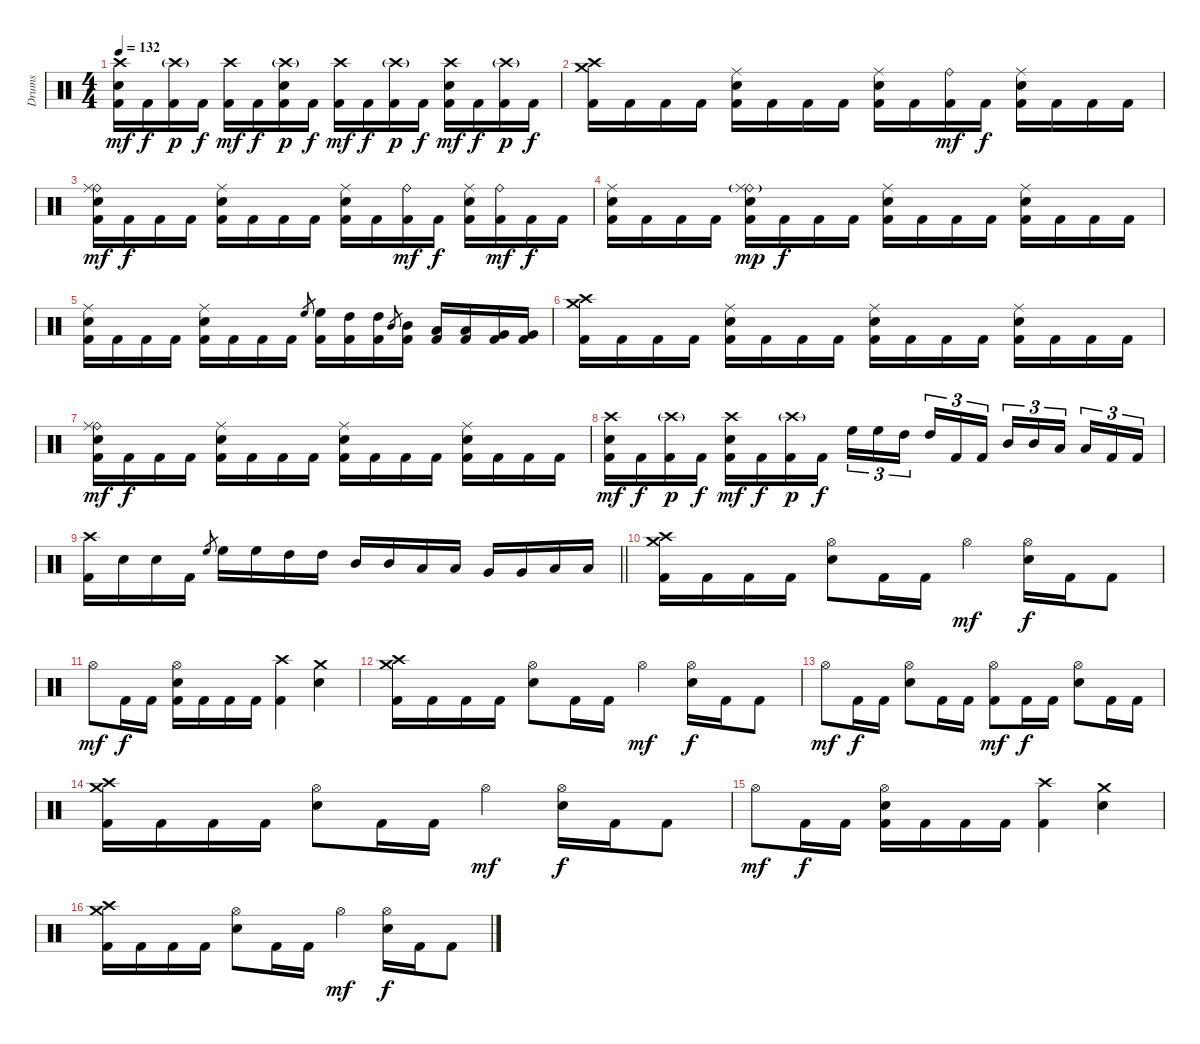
\track ("Drums" "Drums") {instrument percussion}
\staff {score}
\articulation defaults
\ts (4 4)
\tempo 132
\clef neutral
\ks c
("Crash high (hit)" "Electric Snare (hit)" "Kick (hit) 2").16{dy mf} "Kick (hit) 2".16{dy f} ("Crash high (hit)"{g} "Kick (hit) 2").16{dy p} "Kick (hit) 2".16{dy f} ("Crash high (hit)" "Kick (hit) 2").16{dy mf} "Kick (hit) 2".16{dy f} ("Crash high (hit)"{g} "Electric Snare (hit)" "Kick (hit) 2").16{dy p} "Kick (hit) 2".16{dy f} ("Crash high (hit)" "Kick (hit) 2").16{dy mf} "Kick (hit) 2".16{dy f} ("Crash high (hit)"{g} "Kick (hit) 2").16{dy p} "Kick (hit) 2".16{dy f} ("Crash high (hit)" "Electric Snare (hit)" "Kick (hit) 2").16{dy mf} "Kick (hit) 2".16{dy f} ("Crash high (hit)"{g} "Kick (hit) 2").16{dy p} "Kick (hit) 2".16{dy f} |
("Crash high (hit)" "Crash medium (hit)" "Kick (hit) 2").16 "Kick (hit) 2".16 "Kick (hit) 2".16 "Kick (hit) 2".16 ("Ride (middle)" "Electric Snare (hit)" "Kick (hit) 2").16 "Kick (hit) 2".16 "Kick (hit) 2".16 "Kick (hit) 2".16 ("Ride (middle)" "Electric Snare (hit)" "Kick (hit) 2").16 "Kick (hit) 2".16 ("Ride (bell)" "Kick (hit) 2").16{dy mf} "Kick (hit) 2".16{dy f} ("Ride (middle)" "Electric Snare (hit)" "Kick (hit) 2").16 "Kick (hit) 2".16 "Kick (hit) 2".16 "Kick (hit) 2".16 |
("Ride (bell)" "Ride (middle)" "Electric Snare (hit)" "Kick (hit) 2").16{dy mf} "Kick (hit) 2".16{dy f} "Kick (hit) 2".16 "Kick (hit) 2".16 ("Ride (middle)" "Electric Snare (hit)" "Kick (hit) 2").16 "Kick (hit) 2".16 "Kick (hit) 2".16 "Kick (hit) 2".16 ("Ride (middle)" "Electric Snare (hit)" "Kick (hit) 2").16 "Kick (hit) 2".16 ("Ride (bell)" "Kick (hit) 2").16{dy mf} "Kick (hit) 2".16{dy f} ("Ride (middle)" "Electric Snare (hit)" "Kick (hit) 2").16 ("Ride (bell)" "Kick (hit) 2").16{dy mf} "Kick (hit) 2".16{dy f} "Kick (hit) 2".16 |
("Ride (middle)" "Electric Snare (hit)" "Kick (hit) 2").16 "Kick (hit) 2".16 "Kick (hit) 2".16 "Kick (hit) 2".16 ("Ride (bell)"{g} "Ride (middle)" "Electric Snare (hit)" "Kick (hit) 2").16{dy mp} "Kick (hit) 2".16{dy f} "Kick (hit) 2".16 "Kick (hit) 2".16 ("Ride (middle)" "Electric Snare (hit)" "Kick (hit) 2").16 "Kick (hit) 2".16 "Kick (hit) 2".16 "Kick (hit) 2".16 ("Ride (middle)" "Electric Snare (hit)" "Kick (hit) 2").16 "Kick (hit) 2".16 "Kick (hit) 2".16 "Kick (hit) 2".16 |
("Ride (middle)" "Electric Snare (hit)" "Kick (hit) 2").16 "Kick (hit) 2".16 "Kick (hit) 2".16 "Kick (hit) 2".16 ("Ride (middle)" "Electric Snare (hit)" "Kick (hit) 2").16 "Kick (hit) 2".16 "Kick (hit) 2".16 "Kick (hit) 2".16 "High Floor Tom (hit)".8{gr} ("High Floor Tom (hit)" "Kick (hit) 2").16 ("High Tom (hit)" "Kick (hit) 2").16 ("High Tom (hit)" "Kick (hit) 2").16 "Mid Tom (hit)".8{gr} ("Mid Tom (hit)" "Kick (hit) 2").16 ("Low Tom (hit)" "Kick (hit) 2").16 ("Low Tom (hit)" "Kick (hit) 2").16 ("Very Low Tom (hit)" "Kick (hit) 2").16 ("Very Low Tom (hit)" "Kick (hit) 2").16 |
("Crash high (hit)" "Crash medium (hit)" "Kick (hit) 2").16 "Kick (hit) 2".16 "Kick (hit) 2".16 "Kick (hit) 2".16 ("Ride (middle)" "Electric Snare (hit)" "Kick (hit) 2").16 "Kick (hit) 2".16 "Kick (hit) 2".16 "Kick (hit) 2".16 ("Ride (middle)" "Electric Snare (hit)" "Kick (hit) 2").16 "Kick (hit) 2".16 "Kick (hit) 2".16 "Kick (hit) 2".16 ("Ride (middle)" "Electric Snare (hit)" "Kick (hit) 2").16 "Kick (hit) 2".16 "Kick (hit) 2".16 "Kick (hit) 2".16 |
("Ride (bell)" "Ride (middle)" "Electric Snare (hit)" "Kick (hit) 2").16{dy mf} "Kick (hit) 2".16{dy f} "Kick (hit) 2".16 "Kick (hit) 2".16 ("Ride (middle)" "Electric Snare (hit)" "Kick (hit) 2").16 "Kick (hit) 2".16 "Kick (hit) 2".16 "Kick (hit) 2".16 ("Ride (middle)" "Electric Snare (hit)" "Kick (hit) 2").16 "Kick (hit) 2".16 "Kick (hit) 2".16 "Kick (hit) 2".16 ("Ride (middle)" "Electric Snare (hit)" "Kick (hit) 2").16 "Kick (hit) 2".16 "Kick (hit) 2".16 "Kick (hit) 2".16 |
("Crash high (hit)" "Electric Snare (hit)" "Kick (hit) 2").16{dy mf} "Kick (hit) 2".16{dy f} ("Crash high (hit)"{g} "Kick (hit) 2").16{dy p} "Kick (hit) 2".16{dy f} ("Crash high (hit)" "Electric Snare (hit)" "Kick (hit) 2").16{dy mf} "Kick (hit) 2".16{dy f} ("Crash high (hit)"{g} "Kick (hit) 2").16{dy p} "Kick (hit) 2".16{dy f} "High Floor Tom (hit)".16{tu (3 2)} "High Floor Tom (hit)".16{tu (3 2)} "High Tom (hit)".16{tu (3 2)} "High Tom (hit)".16{tu (3 2)} "Kick (hit) 2".16{tu (3 2)} "Kick (hit) 2".16{tu (3 2)} "Mid Tom (hit)".16{tu (3 2)} "Mid Tom (hit)".16{tu (3 2)} "Low Tom (hit)".16{tu (3 2)} "Low Tom (hit)".16{tu (3 2)} "Kick (hit) 2".16{tu (3 2)} "Kick (hit) 2".16{tu (3 2)} |
\barLineRight lightlight
("Crash high (hit)" "Kick (hit) 2").16 "Electric Snare (hit)".16 "Electric Snare (hit)".16 "Kick (hit) 2".16 "High Floor Tom (hit)".8{gr} "High Floor Tom (hit)".16 "High Floor Tom (hit)".16 "High Tom (hit)".16 "High Tom (hit)".16 "Mid Tom (hit)".16 "Mid Tom (hit)".16 "Low Tom (hit)".16 "Low Tom (hit)".16 "Very Low Tom (hit)".16 "Very Low Tom (hit)".16 "Low Floor Tom (hit)".16 "Low Floor Tom (hit)".16 |
("Crash high (hit)" "Crash medium (hit)" "Kick (hit) 2").16 "Kick (hit) 2".16 "Kick (hit) 2".16 "Kick (hit) 2".16 ("Hi-Hat (open)" "Electric Snare (hit)").8 "Kick (hit) 2".16 "Kick (hit) 2".16 "Hi-Hat (open)".4{dy mf} ("Hi-Hat (open)" "Electric Snare (hit)").16{dy f} "Kick (hit) 2".16 "Kick (hit) 2".8 |
"Hi-Hat (open)".8{dy mf} "Kick (hit) 2".16{dy f} "Kick (hit) 2".16 ("Hi-Hat (open)" "Electric Snare (hit)" "Kick (hit) 2").16 "Kick (hit) 2".16 "Kick (hit) 2".16 "Kick (hit) 2".16 ("Crash high (hit)" "Kick (hit) 2").4 ("Crash medium (hit)" "Electric Snare (hit)").4 |
("Crash high (hit)" "Crash medium (hit)" "Kick (hit) 2").16 "Kick (hit) 2".16 "Kick (hit) 2".16 "Kick (hit) 2".16 ("Hi-Hat (open)" "Electric Snare (hit)").8 "Kick (hit) 2".16 "Kick (hit) 2".16 "Hi-Hat (open)".4{dy mf} ("Hi-Hat (open)" "Electric Snare (hit)").16{dy f} "Kick (hit) 2".16 "Kick (hit) 2".8 |
"Hi-Hat (open)".8{dy mf} "Kick (hit) 2".16{dy f} "Kick (hit) 2".16 ("Hi-Hat (open)" "Electric Snare (hit)").8 "Kick (hit) 2".16 "Kick (hit) 2".16 ("Hi-Hat (open)" "Kick (hit) 2").8{dy mf} "Kick (hit) 2".16{dy f} "Kick (hit) 2".16 ("Hi-Hat (open)" "Electric Snare (hit)").8 "Kick (hit) 2".16 "Kick (hit) 2".16 |
("Crash high (hit)" "Crash medium (hit)" "Kick (hit) 2").16 "Kick (hit) 2".16 "Kick (hit) 2".16 "Kick (hit) 2".16 ("Hi-Hat (open)" "Electric Snare (hit)").8 "Kick (hit) 2".16 "Kick (hit) 2".16 "Hi-Hat (open)".4{dy mf} ("Hi-Hat (open)" "Electric Snare (hit)").16{dy f} "Kick (hit) 2".16 "Kick (hit) 2".8 |
"Hi-Hat (open)".8{dy mf} "Kick (hit) 2".16{dy f} "Kick (hit) 2".16 ("Hi-Hat (open)" "Electric Snare (hit)" "Kick (hit) 2").16 "Kick (hit) 2".16 "Kick (hit) 2".16 "Kick (hit) 2".16 ("Crash high (hit)" "Kick (hit) 2").4 ("Crash medium (hit)" "Electric Snare (hit)").4 |
("Crash high (hit)" "Crash medium (hit)" "Kick (hit) 2").16 "Kick (hit) 2".16 "Kick (hit) 2".16 "Kick (hit) 2".16 ("Hi-Hat (open)" "Electric Snare (hit)").8 "Kick (hit) 2".16 "Kick (hit) 2".16 "Hi-Hat (open)".4{dy mf} ("Hi-Hat (open)" "Electric Snare (hit)").16{dy f} "Kick (hit) 2".16 "Kick (hit) 2".8
